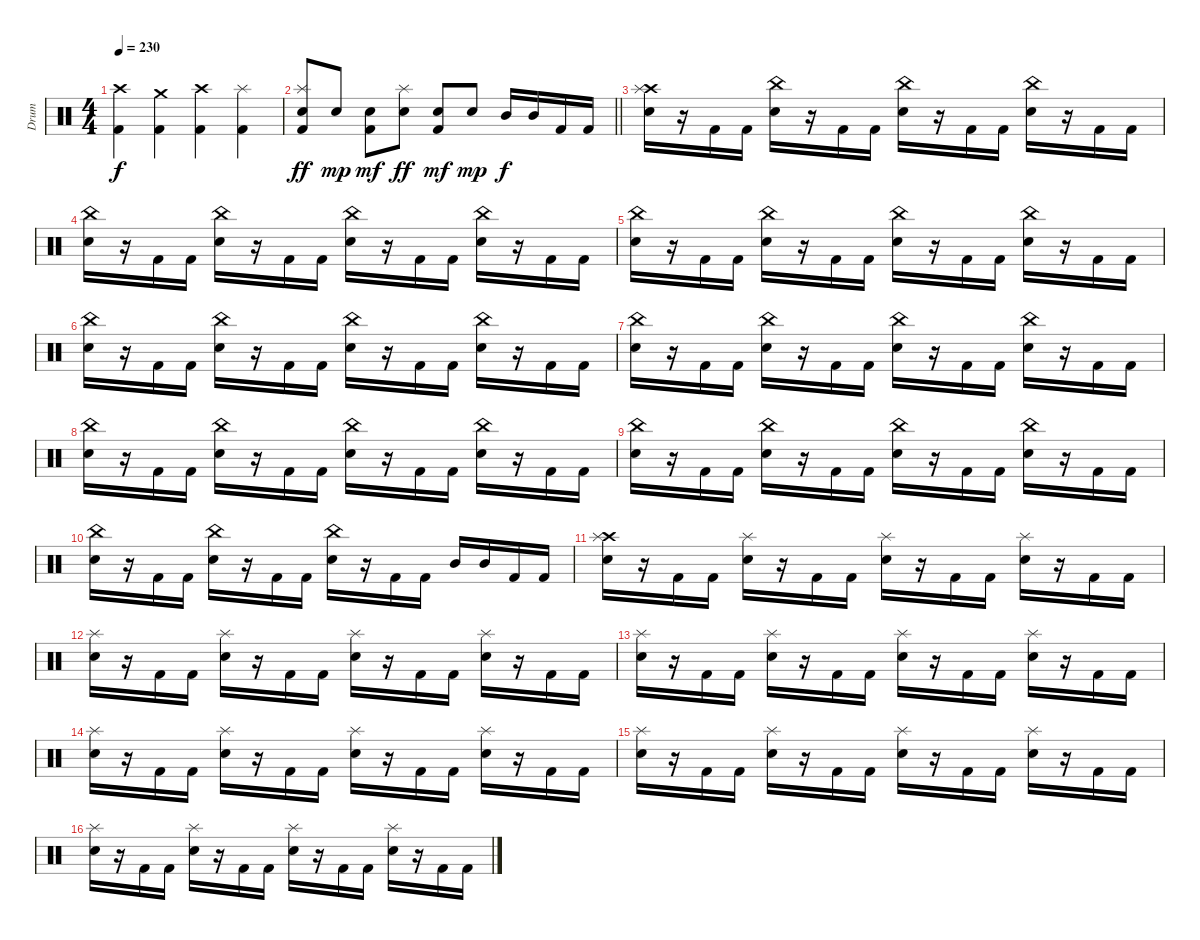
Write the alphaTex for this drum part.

\track ("Drum" "Drum") {instrument percussion}
\staff {score}
\articulation defaults
\ts (4 4)
\tempo 230
\clef neutral
\ks c
("Crash high (hit)" "Kick (hit) 2").4{dy f} ("Crash medium (hit)" "Kick (hit) 2").4 ("Crash high (hit)" "Kick (hit) 2").4 ("Splash (hit)" "Kick (hit) 2").4 |
\barLineRight lightlight
("Splash (hit)" "Electric Snare (hit)" "Kick (hit) 2").8{dy ff} "Electric Snare (hit)".8{dy mp} ("Electric Snare (hit)" "Kick (hit) 2").8{dy mf} ("Splash (hit)" "Electric Snare (hit)").8{dy ff} ("Electric Snare (hit)" "Kick (hit) 2").8{dy mf} "Electric Snare (hit)".8{dy mp} "Mid Tom (hit)".16{dy f} "Mid Tom (hit)".16 "Kick (hit) 2".16 "Kick (hit) 2".16 |
("Crash high (hit)" "Splash (hit)" "Electric Snare (hit)").16 r.16 "Kick (hit) 2".16 "Kick (hit) 2".16 ("China (hit)" "Electric Snare (hit)").16 r.16 "Kick (hit) 2".16 "Kick (hit) 2".16 ("China (hit)" "Electric Snare (hit)").16 r.16 "Kick (hit) 2".16 "Kick (hit) 2".16 ("China (hit)" "Electric Snare (hit)").16 r.16 "Kick (hit) 2".16 "Kick (hit) 2".16 |
("China (hit)" "Electric Snare (hit)").16 r.16 "Kick (hit) 2".16 "Kick (hit) 2".16 ("China (hit)" "Electric Snare (hit)").16 r.16 "Kick (hit) 2".16 "Kick (hit) 2".16 ("China (hit)" "Electric Snare (hit)").16 r.16 "Kick (hit) 2".16 "Kick (hit) 2".16 ("China (hit)" "Electric Snare (hit)").16 r.16 "Kick (hit) 2".16 "Kick (hit) 2".16 |
("China (hit)" "Electric Snare (hit)").16 r.16 "Kick (hit) 2".16 "Kick (hit) 2".16 ("China (hit)" "Electric Snare (hit)").16 r.16 "Kick (hit) 2".16 "Kick (hit) 2".16 ("China (hit)" "Electric Snare (hit)").16 r.16 "Kick (hit) 2".16 "Kick (hit) 2".16 ("China (hit)" "Electric Snare (hit)").16 r.16 "Kick (hit) 2".16 "Kick (hit) 2".16 |
("China (hit)" "Electric Snare (hit)").16 r.16 "Kick (hit) 2".16 "Kick (hit) 2".16 ("China (hit)" "Electric Snare (hit)").16 r.16 "Kick (hit) 2".16 "Kick (hit) 2".16 ("China (hit)" "Electric Snare (hit)").16 r.16 "Kick (hit) 2".16 "Kick (hit) 2".16 ("China (hit)" "Electric Snare (hit)").16 r.16 "Kick (hit) 2".16 "Kick (hit) 2".16 |
("China (hit)" "Electric Snare (hit)").16 r.16 "Kick (hit) 2".16 "Kick (hit) 2".16 ("China (hit)" "Electric Snare (hit)").16 r.16 "Kick (hit) 2".16 "Kick (hit) 2".16 ("China (hit)" "Electric Snare (hit)").16 r.16 "Kick (hit) 2".16 "Kick (hit) 2".16 ("China (hit)" "Electric Snare (hit)").16 r.16 "Kick (hit) 2".16 "Kick (hit) 2".16 |
("China (hit)" "Electric Snare (hit)").16 r.16 "Kick (hit) 2".16 "Kick (hit) 2".16 ("China (hit)" "Electric Snare (hit)").16 r.16 "Kick (hit) 2".16 "Kick (hit) 2".16 ("China (hit)" "Electric Snare (hit)").16 r.16 "Kick (hit) 2".16 "Kick (hit) 2".16 ("China (hit)" "Electric Snare (hit)").16 r.16 "Kick (hit) 2".16 "Kick (hit) 2".16 |
("China (hit)" "Electric Snare (hit)").16 r.16 "Kick (hit) 2".16 "Kick (hit) 2".16 ("China (hit)" "Electric Snare (hit)").16 r.16 "Kick (hit) 2".16 "Kick (hit) 2".16 ("China (hit)" "Electric Snare (hit)").16 r.16 "Kick (hit) 2".16 "Kick (hit) 2".16 ("China (hit)" "Electric Snare (hit)").16 r.16 "Kick (hit) 2".16 "Kick (hit) 2".16 |
("China (hit)" "Electric Snare (hit)").16 r.16 "Kick (hit) 2".16 "Kick (hit) 2".16 ("China (hit)" "Electric Snare (hit)").16 r.16 "Kick (hit) 2".16 "Kick (hit) 2".16 ("China (hit)" "Electric Snare (hit)").16 r.16 "Kick (hit) 2".16 "Kick (hit) 2".16 "Mid Tom (hit)".16 "Mid Tom (hit)".16 "Kick (hit) 2".16 "Kick (hit) 2".16 |
("Crash high (hit)" "Splash (hit)" "Electric Snare (hit)").16 r.16 "Kick (hit) 2".16 "Kick (hit) 2".16 ("Splash (hit)" "Electric Snare (hit)").16 r.16 "Kick (hit) 2".16 "Kick (hit) 2".16 ("Splash (hit)" "Electric Snare (hit)").16 r.16 "Kick (hit) 2".16 "Kick (hit) 2".16 ("Splash (hit)" "Electric Snare (hit)").16 r.16 "Kick (hit) 2".16 "Kick (hit) 2".16 |
("Splash (hit)" "Electric Snare (hit)").16 r.16 "Kick (hit) 2".16 "Kick (hit) 2".16 ("Splash (hit)" "Electric Snare (hit)").16 r.16 "Kick (hit) 2".16 "Kick (hit) 2".16 ("Splash (hit)" "Electric Snare (hit)").16 r.16 "Kick (hit) 2".16 "Kick (hit) 2".16 ("Splash (hit)" "Electric Snare (hit)").16 r.16 "Kick (hit) 2".16 "Kick (hit) 2".16 |
("Splash (hit)" "Electric Snare (hit)").16 r.16 "Kick (hit) 2".16 "Kick (hit) 2".16 ("Splash (hit)" "Electric Snare (hit)").16 r.16 "Kick (hit) 2".16 "Kick (hit) 2".16 ("Splash (hit)" "Electric Snare (hit)").16 r.16 "Kick (hit) 2".16 "Kick (hit) 2".16 ("Splash (hit)" "Electric Snare (hit)").16 r.16 "Kick (hit) 2".16 "Kick (hit) 2".16 |
("Splash (hit)" "Electric Snare (hit)").16 r.16 "Kick (hit) 2".16 "Kick (hit) 2".16 ("Splash (hit)" "Electric Snare (hit)").16 r.16 "Kick (hit) 2".16 "Kick (hit) 2".16 ("Splash (hit)" "Electric Snare (hit)").16 r.16 "Kick (hit) 2".16 "Kick (hit) 2".16 ("Splash (hit)" "Electric Snare (hit)").16 r.16 "Kick (hit) 2".16 "Kick (hit) 2".16 |
("Splash (hit)" "Electric Snare (hit)").16 r.16 "Kick (hit) 2".16 "Kick (hit) 2".16 ("Splash (hit)" "Electric Snare (hit)").16 r.16 "Kick (hit) 2".16 "Kick (hit) 2".16 ("Splash (hit)" "Electric Snare (hit)").16 r.16 "Kick (hit) 2".16 "Kick (hit) 2".16 ("Splash (hit)" "Electric Snare (hit)").16 r.16 "Kick (hit) 2".16 "Kick (hit) 2".16 |
("Splash (hit)" "Electric Snare (hit)").16 r.16 "Kick (hit) 2".16 "Kick (hit) 2".16 ("Splash (hit)" "Electric Snare (hit)").16 r.16 "Kick (hit) 2".16 "Kick (hit) 2".16 ("Splash (hit)" "Electric Snare (hit)").16 r.16 "Kick (hit) 2".16 "Kick (hit) 2".16 ("Splash (hit)" "Electric Snare (hit)").16 r.16 "Kick (hit) 2".16 "Kick (hit) 2".16
